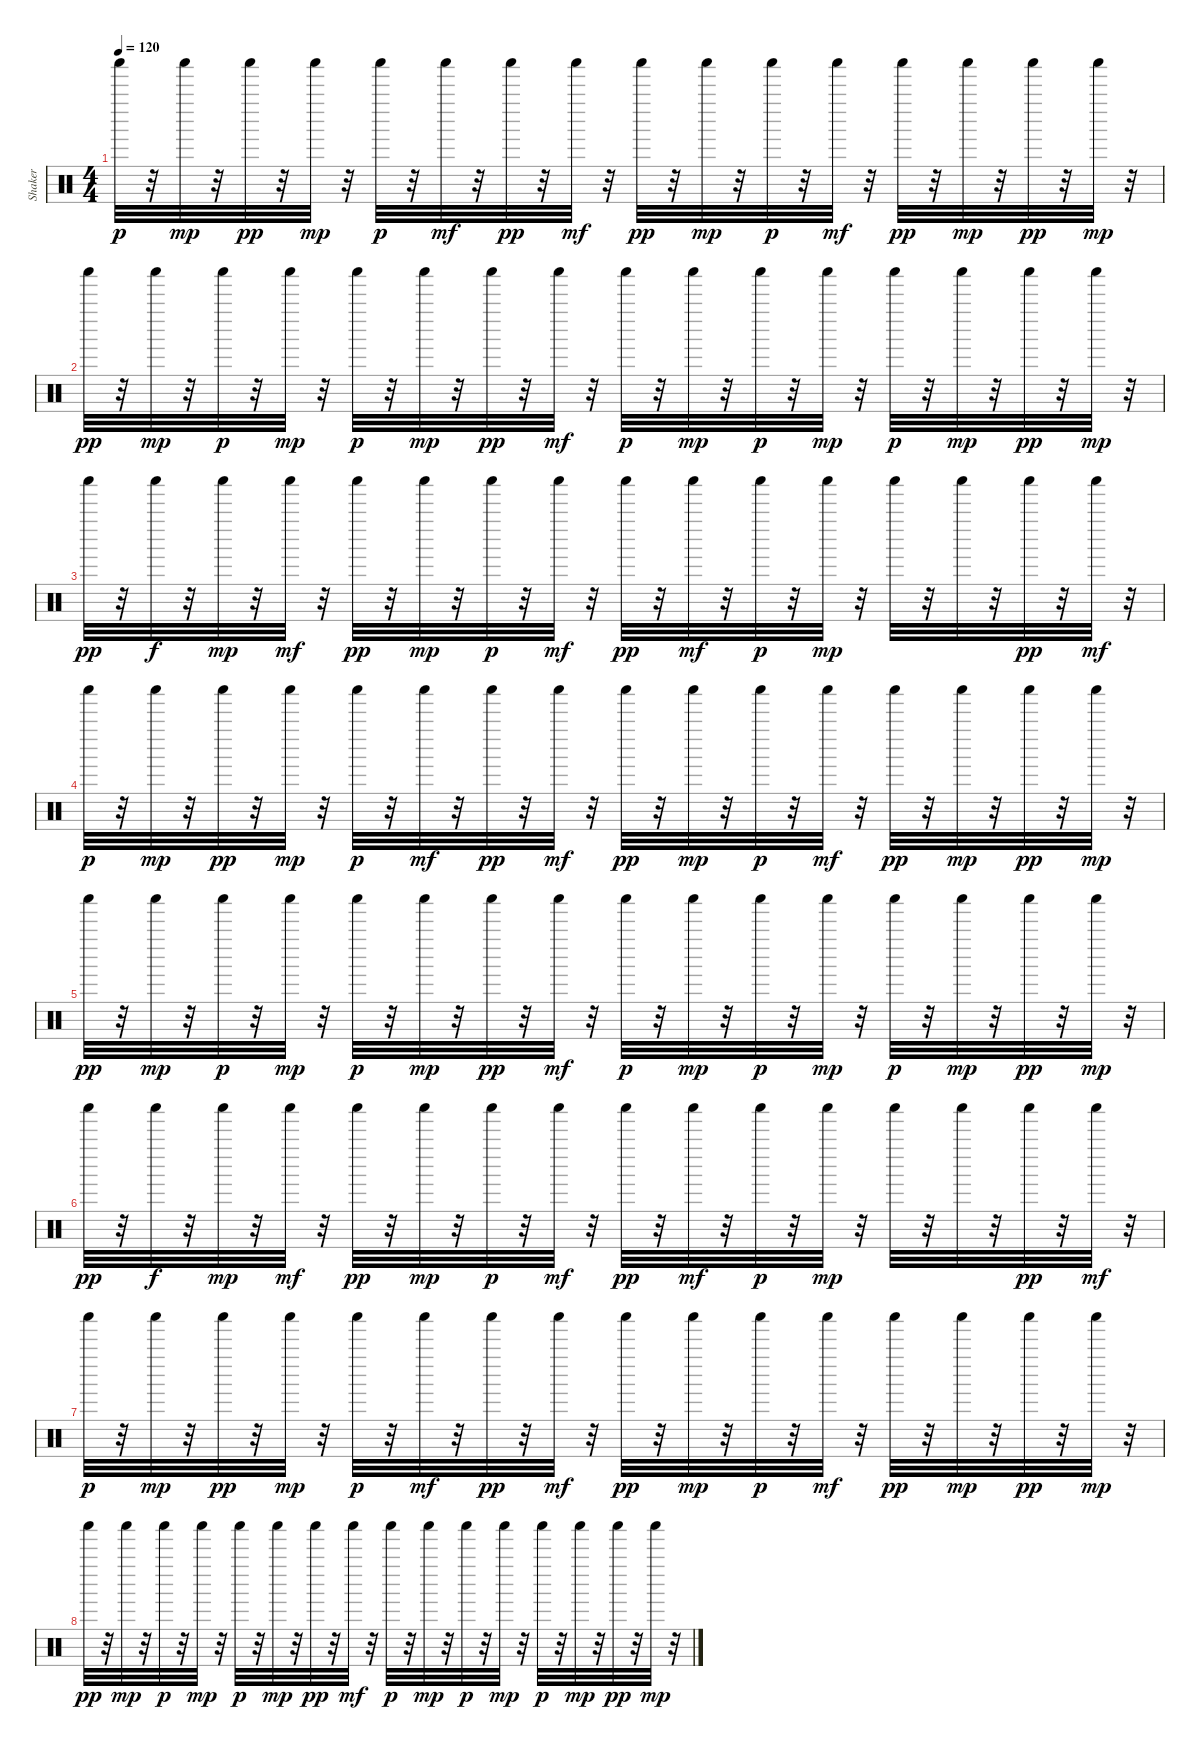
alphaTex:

\track ("Shaker" "Shaker") {instrument percussion}
\staff {score}
\articulation defaults
\ts (4 4)
\tempo 120
\clef neutral
\ks c "Shaker (hit)".32{dy p}
r.32 "Shaker (hit)".32{dy mp} r.32 "Shaker (hit)".32{dy pp} r.32 "Shaker (hit)".32{dy mp} r.32 "Shaker (hit)".32{dy p} r.32 "Shaker (hit)".32{dy mf} r.32 "Shaker (hit)".32{dy pp} r.32 "Shaker (hit)".32{dy mf} r.32 "Shaker (hit)".32{dy pp} r.32 "Shaker (hit)".32{dy mp} r.32 "Shaker (hit)".32{dy p} r.32 "Shaker (hit)".32{dy mf} r.32 "Shaker (hit)".32{dy pp} r.32 "Shaker (hit)".32{dy mp} r.32 "Shaker (hit)".32{dy pp} r.32 "Shaker (hit)".32{dy mp} r.32 |
"Shaker (hit)".32{dy pp} r.32 "Shaker (hit)".32{dy mp} r.32 "Shaker (hit)".32{dy p} r.32 "Shaker (hit)".32{dy mp} r.32 "Shaker (hit)".32{dy p} r.32 "Shaker (hit)".32{dy mp} r.32 "Shaker (hit)".32{dy pp} r.32 "Shaker (hit)".32{dy mf} r.32 "Shaker (hit)".32{dy p} r.32 "Shaker (hit)".32{dy mp} r.32 "Shaker (hit)".32{dy p} r.32 "Shaker (hit)".32{dy mp} r.32 "Shaker (hit)".32{dy p} r.32 "Shaker (hit)".32{dy mp} r.32 "Shaker (hit)".32{dy pp} r.32 "Shaker (hit)".32{dy mp} r.32 |
"Shaker (hit)".32{dy pp} r.32 "Shaker (hit)".32{dy f} r.32 "Shaker (hit)".32{dy mp} r.32 "Shaker (hit)".32{dy mf} r.32 "Shaker (hit)".32{dy pp} r.32 "Shaker (hit)".32{dy mp} r.32 "Shaker (hit)".32{dy p} r.32 "Shaker (hit)".32{dy mf} r.32 "Shaker (hit)".32{dy pp} r.32 "Shaker (hit)".32{dy mf} r.32 "Shaker (hit)".32{dy p} r.32 "Shaker (hit)".32{dy mp} r.32 "Shaker (hit)".32 r.32 "Shaker (hit)".32 r.32 "Shaker (hit)".32{dy pp} r.32 "Shaker (hit)".32{dy mf} r.32 |
"Shaker (hit)".32{dy p} r.32 "Shaker (hit)".32{dy mp} r.32 "Shaker (hit)".32{dy pp} r.32 "Shaker (hit)".32{dy mp} r.32 "Shaker (hit)".32{dy p} r.32 "Shaker (hit)".32{dy mf} r.32 "Shaker (hit)".32{dy pp} r.32 "Shaker (hit)".32{dy mf} r.32 "Shaker (hit)".32{dy pp} r.32 "Shaker (hit)".32{dy mp} r.32 "Shaker (hit)".32{dy p} r.32 "Shaker (hit)".32{dy mf} r.32 "Shaker (hit)".32{dy pp} r.32 "Shaker (hit)".32{dy mp} r.32 "Shaker (hit)".32{dy pp} r.32 "Shaker (hit)".32{dy mp} r.32 |
"Shaker (hit)".32{dy pp} r.32 "Shaker (hit)".32{dy mp} r.32 "Shaker (hit)".32{dy p} r.32 "Shaker (hit)".32{dy mp} r.32 "Shaker (hit)".32{dy p} r.32 "Shaker (hit)".32{dy mp} r.32 "Shaker (hit)".32{dy pp} r.32 "Shaker (hit)".32{dy mf} r.32 "Shaker (hit)".32{dy p} r.32 "Shaker (hit)".32{dy mp} r.32 "Shaker (hit)".32{dy p} r.32 "Shaker (hit)".32{dy mp} r.32 "Shaker (hit)".32{dy p} r.32 "Shaker (hit)".32{dy mp} r.32 "Shaker (hit)".32{dy pp} r.32 "Shaker (hit)".32{dy mp} r.32 |
"Shaker (hit)".32{dy pp} r.32 "Shaker (hit)".32{dy f} r.32 "Shaker (hit)".32{dy mp} r.32 "Shaker (hit)".32{dy mf} r.32 "Shaker (hit)".32{dy pp} r.32 "Shaker (hit)".32{dy mp} r.32 "Shaker (hit)".32{dy p} r.32 "Shaker (hit)".32{dy mf} r.32 "Shaker (hit)".32{dy pp} r.32 "Shaker (hit)".32{dy mf} r.32 "Shaker (hit)".32{dy p} r.32 "Shaker (hit)".32{dy mp} r.32 "Shaker (hit)".32 r.32 "Shaker (hit)".32 r.32 "Shaker (hit)".32{dy pp} r.32 "Shaker (hit)".32{dy mf} r.32 |
"Shaker (hit)".32{dy p} r.32 "Shaker (hit)".32{dy mp} r.32 "Shaker (hit)".32{dy pp} r.32 "Shaker (hit)".32{dy mp} r.32 "Shaker (hit)".32{dy p} r.32 "Shaker (hit)".32{dy mf} r.32 "Shaker (hit)".32{dy pp} r.32 "Shaker (hit)".32{dy mf} r.32 "Shaker (hit)".32{dy pp} r.32 "Shaker (hit)".32{dy mp} r.32 "Shaker (hit)".32{dy p} r.32 "Shaker (hit)".32{dy mf} r.32 "Shaker (hit)".32{dy pp} r.32 "Shaker (hit)".32{dy mp} r.32 "Shaker (hit)".32{dy pp} r.32 "Shaker (hit)".32{dy mp} r.32 |
"Shaker (hit)".32{dy pp} r.32 "Shaker (hit)".32{dy mp} r.32 "Shaker (hit)".32{dy p} r.32 "Shaker (hit)".32{dy mp} r.32 "Shaker (hit)".32{dy p} r.32 "Shaker (hit)".32{dy mp} r.32 "Shaker (hit)".32{dy pp} r.32 "Shaker (hit)".32{dy mf} r.32 "Shaker (hit)".32{dy p} r.32 "Shaker (hit)".32{dy mp} r.32 "Shaker (hit)".32{dy p} r.32 "Shaker (hit)".32{dy mp} r.32 "Shaker (hit)".32{dy p} r.32 "Shaker (hit)".32{dy mp} r.32 "Shaker (hit)".32{dy pp} r.32 "Shaker (hit)".32{dy mp} r.32
